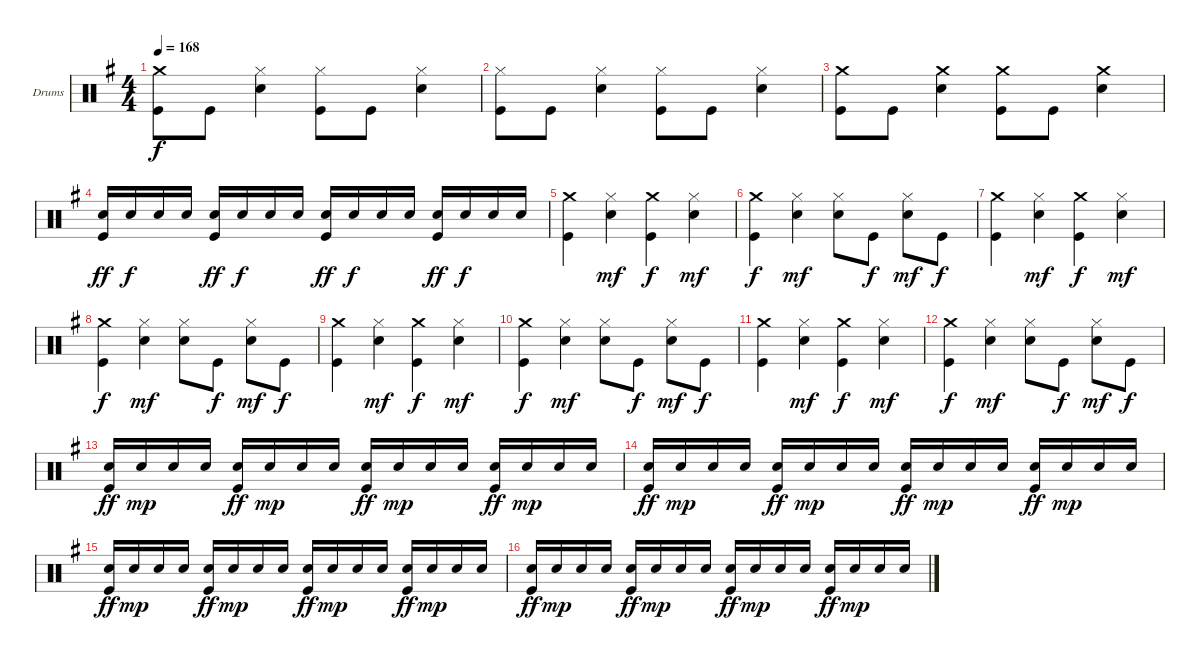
\defaultSystemsLayout 4
\bracketExtendMode groupsimilarinstruments
\firstSystemTrackNameOrientation horizontal
\otherSystemsTrackNameOrientation horizontal
\track ("Drumkit" "Drums") {instrument percussion}
\staff {score}
\articulation defaults
\ts (4 4)
\tempo 168
\clef neutral
\ks g
("Crash medium (hit)" "Kick (hit)").8{dy f} "Kick (hit)".8 ("Hi-Hat (closed)" "Snare (hit) 2").4 ("Hi-Hat (closed)" "Kick (hit)").8 "Kick (hit)".8 ("Hi-Hat (closed)" "Snare (hit) 2").4 |
("Hi-Hat (closed)" "Kick (hit)").8 "Kick (hit)".8 ("Hi-Hat (closed)" "Snare (hit) 2").4 ("Hi-Hat (closed)" "Kick (hit)").8 "Kick (hit)".8 ("Hi-Hat (closed)" "Snare (hit) 2").4 |
("Crash medium (hit)" "Kick (hit)").8 "Kick (hit)".8 ("Crash medium (hit)" "Snare (hit) 2").4 ("Crash medium (hit)" "Kick (hit)").8 "Kick (hit)".8 ("Crash medium (hit)" "Snare (hit) 2").4 |
("Snare (hit) 2" "Kick (hit)").16{dy ff} "Snare (hit) 2".16{dy f} "Snare (hit) 2".16 "Snare (hit) 2".16 ("Snare (hit) 2" "Kick (hit)").16{dy ff} "Snare (hit) 2".16{dy f} "Snare (hit) 2".16 "Snare (hit) 2".16 ("Snare (hit) 2" "Kick (hit)").16{dy ff} "Snare (hit) 2".16{dy f} "Snare (hit) 2".16 "Snare (hit) 2".16 ("Snare (hit) 2" "Kick (hit)").16{dy ff} "Snare (hit) 2".16{dy f} "Snare (hit) 2".16 "Snare (hit) 2".16 |
("Crash medium (hit)" "Kick (hit)").4 ("Hi-Hat (closed)" "Snare (hit) 2").4{dy mf} ("Crash medium (hit)" "Kick (hit)").4{dy f} ("Hi-Hat (closed)" "Snare (hit) 2").4{dy mf} |
("Crash medium (hit)" "Kick (hit)").4{dy f} ("Hi-Hat (closed)" "Snare (hit) 2").4{dy mf} ("Hi-Hat (closed)" "Snare (hit) 2").8 "Kick (hit)".8{dy f} ("Hi-Hat (closed)" "Snare (hit) 2").8{dy mf} "Kick (hit)".8{dy f} |
("Crash medium (hit)" "Kick (hit)").4 ("Hi-Hat (closed)" "Snare (hit) 2").4{dy mf} ("Crash medium (hit)" "Kick (hit)").4{dy f} ("Hi-Hat (closed)" "Snare (hit) 2").4{dy mf} |
("Crash medium (hit)" "Kick (hit)").4{dy f} ("Hi-Hat (closed)" "Snare (hit) 2").4{dy mf} ("Hi-Hat (closed)" "Snare (hit) 2").8 "Kick (hit)".8{dy f} ("Hi-Hat (closed)" "Snare (hit) 2").8{dy mf} "Kick (hit)".8{dy f} |
("Crash medium (hit)" "Kick (hit)").4 ("Hi-Hat (closed)" "Snare (hit) 2").4{dy mf} ("Crash medium (hit)" "Kick (hit)").4{dy f} ("Hi-Hat (closed)" "Snare (hit) 2").4{dy mf} |
("Crash medium (hit)" "Kick (hit)").4{dy f} ("Hi-Hat (closed)" "Snare (hit) 2").4{dy mf} ("Hi-Hat (closed)" "Snare (hit) 2").8 "Kick (hit)".8{dy f} ("Hi-Hat (closed)" "Snare (hit) 2").8{dy mf} "Kick (hit)".8{dy f} |
("Crash medium (hit)" "Kick (hit)").4 ("Hi-Hat (closed)" "Snare (hit) 2").4{dy mf} ("Crash medium (hit)" "Kick (hit)").4{dy f} ("Hi-Hat (closed)" "Snare (hit) 2").4{dy mf} |
("Crash medium (hit)" "Kick (hit)").4{dy f} ("Hi-Hat (closed)" "Snare (hit) 2").4{dy mf} ("Hi-Hat (closed)" "Snare (hit) 2").8 "Kick (hit)".8{dy f} ("Hi-Hat (closed)" "Snare (hit) 2").8{dy mf} "Kick (hit)".8{dy f} |
("Snare (hit) 2" "Kick (hit)").16{dy ff} "Snare (hit) 2".16{dy mp} "Snare (hit) 2".16 "Snare (hit) 2".16 ("Snare (hit) 2" "Kick (hit)").16{dy ff} "Snare (hit) 2".16{dy mp} "Snare (hit) 2".16 "Snare (hit) 2".16 ("Snare (hit) 2" "Kick (hit)").16{dy ff} "Snare (hit) 2".16{dy mp} "Snare (hit) 2".16 "Snare (hit) 2".16 ("Snare (hit) 2" "Kick (hit)").16{dy ff} "Snare (hit) 2".16{dy mp} "Snare (hit) 2".16 "Snare (hit) 2".16 |
("Snare (hit) 2" "Kick (hit)").16{dy ff} "Snare (hit) 2".16{dy mp} "Snare (hit) 2".16 "Snare (hit) 2".16 ("Snare (hit) 2" "Kick (hit)").16{dy ff} "Snare (hit) 2".16{dy mp} "Snare (hit) 2".16 "Snare (hit) 2".16 ("Snare (hit) 2" "Kick (hit)").16{dy ff} "Snare (hit) 2".16{dy mp} "Snare (hit) 2".16 "Snare (hit) 2".16 ("Snare (hit) 2" "Kick (hit)").16{dy ff} "Snare (hit) 2".16{dy mp} "Snare (hit) 2".16 "Snare (hit) 2".16 |
("Snare (hit) 2" "Kick (hit)").16{dy ff} "Snare (hit) 2".16{dy mp} "Snare (hit) 2".16 "Snare (hit) 2".16 ("Snare (hit) 2" "Kick (hit)").16{dy ff} "Snare (hit) 2".16{dy mp} "Snare (hit) 2".16 "Snare (hit) 2".16 ("Snare (hit) 2" "Kick (hit)").16{dy ff} "Snare (hit) 2".16{dy mp} "Snare (hit) 2".16 "Snare (hit) 2".16 ("Snare (hit) 2" "Kick (hit)").16{dy ff} "Snare (hit) 2".16{dy mp} "Snare (hit) 2".16 "Snare (hit) 2".16 |
("Snare (hit) 2" "Kick (hit)").16{dy ff} "Snare (hit) 2".16{dy mp} "Snare (hit) 2".16 "Snare (hit) 2".16 ("Snare (hit) 2" "Kick (hit)").16{dy ff} "Snare (hit) 2".16{dy mp} "Snare (hit) 2".16 "Snare (hit) 2".16 ("Snare (hit) 2" "Kick (hit)").16{dy ff} "Snare (hit) 2".16{dy mp} "Snare (hit) 2".16 "Snare (hit) 2".16 ("Snare (hit) 2" "Kick (hit)").16{dy ff} "Snare (hit) 2".16{dy mp} "Snare (hit) 2".16 "Snare (hit) 2".16
